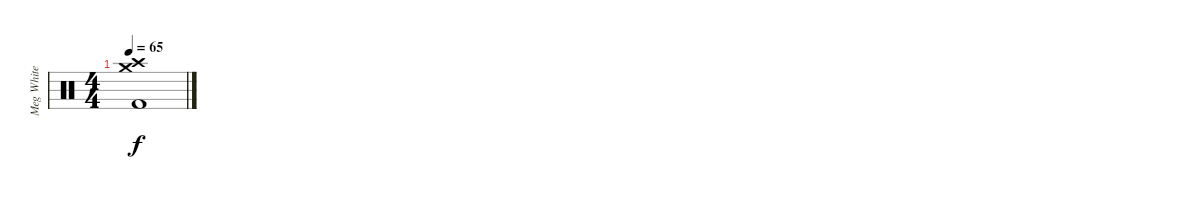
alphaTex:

\track ("Meg White" "Meg White") {instrument percussion}
\staff {score}
\articulation defaults
\ts (4 4)
\tempo 65
\clef neutral
\ks c
("Kick (hit) 2" "Crash medium (hit)" "Crash high (hit)").1{dy f}
